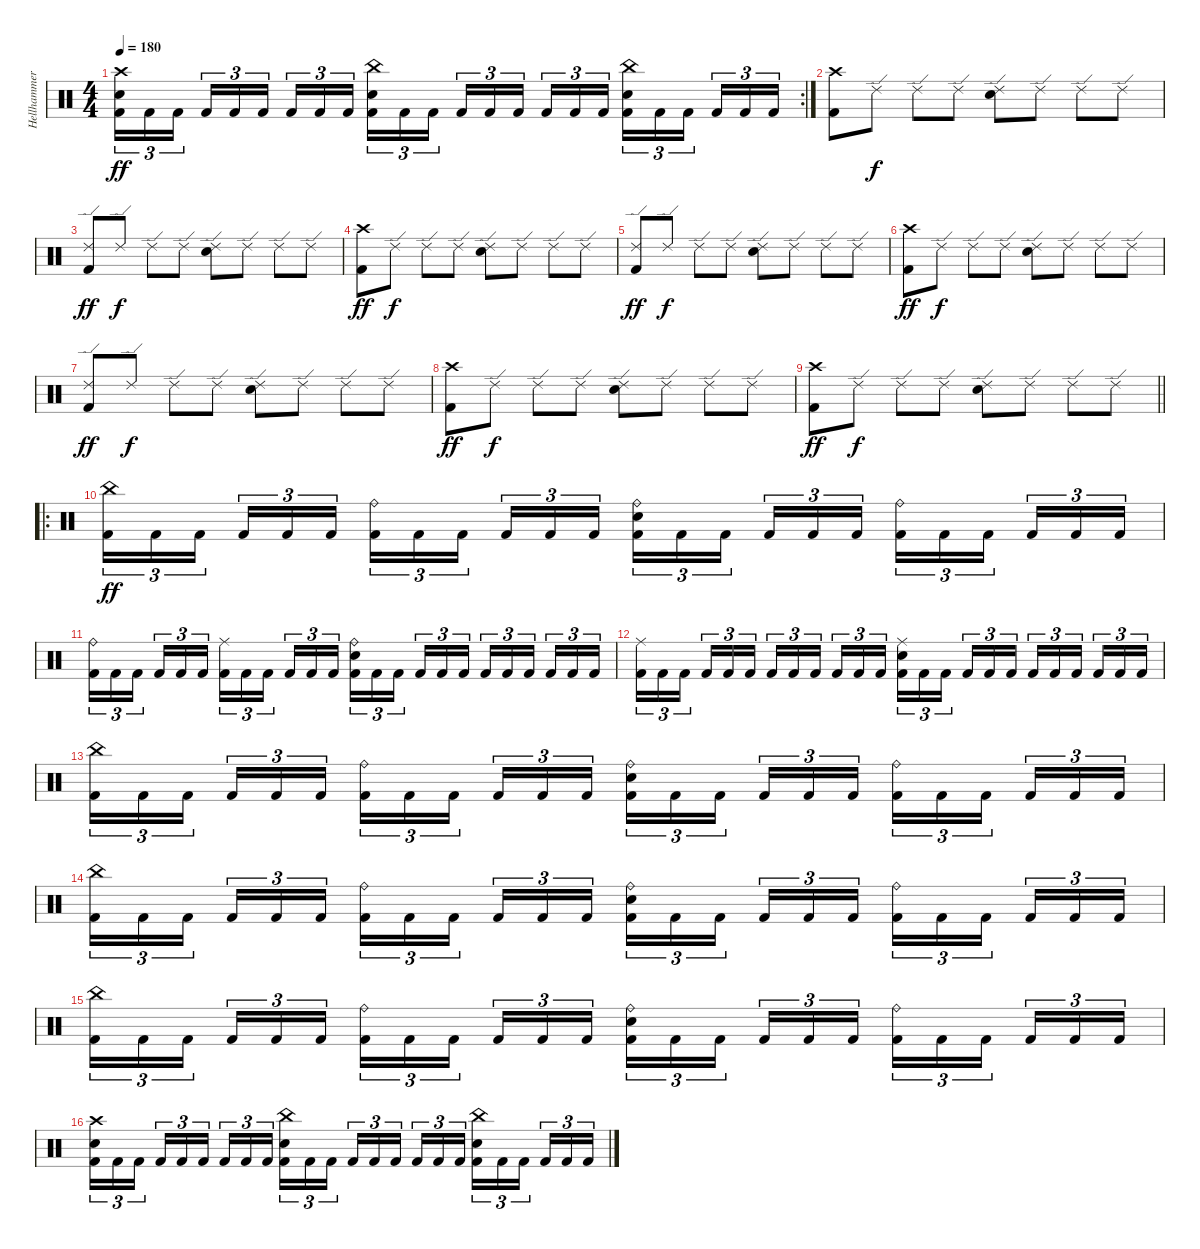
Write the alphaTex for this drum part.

\track ("Hellhammer" "Hellhammer") {instrument percussion}
\staff {score}
\articulation defaults
\rc 2
\ts (4 4)
\tempo 180
\clef neutral
\ks c
("Crash high (hit)" "Electric Snare (hit)" "Kick (hit) 2").16{tu (3 2) dy ff} "Kick (hit) 2".16{tu (3 2)} "Kick (hit) 2".16{tu (3 2) beam splitsecondary} "Kick (hit) 2".16{tu (3 2)} "Kick (hit) 2".16{tu (3 2)} "Kick (hit) 2".16{tu (3 2)} "Kick (hit) 2".16{tu (3 2)} "Kick (hit) 2".16{tu (3 2)} "Kick (hit) 2".16{tu (3 2) beam splitsecondary} ("China (hit)" "Electric Snare (hit)" "Kick (hit) 2").16{tu (3 2)} "Kick (hit) 2".16{tu (3 2)} "Kick (hit) 2".16{tu (3 2)} "Kick (hit) 2".16{tu (3 2)} "Kick (hit) 2".16{tu (3 2)} "Kick (hit) 2".16{tu (3 2) beam splitsecondary} "Kick (hit) 2".16{tu (3 2)} "Kick (hit) 2".16{tu (3 2)} "Kick (hit) 2".16{tu (3 2)} ("China (hit)" "Electric Snare (hit)" "Kick (hit) 2").16{tu (3 2)} "Kick (hit) 2".16{tu (3 2)} "Kick (hit) 2".16{tu (3 2) beam splitsecondary} "Kick (hit) 2".16{tu (3 2)} "Kick (hit) 2".16{tu (3 2)} "Kick (hit) 2".16{tu (3 2)} |
("Crash high (hit)" "Kick (hit) 2").8 "Ride (edge) 2".8{dy f} "Ride (edge) 2".8 "Ride (edge) 2".8 ("Ride (edge) 2" "Electric Snare (hit)").8 "Ride (edge) 2".8 "Ride (edge) 2".8 "Ride (edge) 2".8 |
("Ride (edge) 2" "Kick (hit) 2").8{dy ff} "Ride (edge) 2".8{dy f} "Ride (edge) 2".8 "Ride (edge) 2".8 ("Ride (edge) 2" "Electric Snare (hit)").8 "Ride (edge) 2".8 "Ride (edge) 2".8 "Ride (edge) 2".8 |
("Crash high (hit)" "Kick (hit) 2").8{dy ff} "Ride (edge) 2".8{dy f} "Ride (edge) 2".8 "Ride (edge) 2".8 ("Ride (edge) 2" "Electric Snare (hit)").8 "Ride (edge) 2".8 "Ride (edge) 2".8 "Ride (edge) 2".8 |
("Ride (edge) 2" "Kick (hit) 2").8{dy ff} "Ride (edge) 2".8{dy f} "Ride (edge) 2".8 "Ride (edge) 2".8 ("Ride (edge) 2" "Electric Snare (hit)").8 "Ride (edge) 2".8 "Ride (edge) 2".8 "Ride (edge) 2".8 |
("Crash high (hit)" "Kick (hit) 2").8{dy ff} "Ride (edge) 2".8{dy f} "Ride (edge) 2".8 "Ride (edge) 2".8 ("Ride (edge) 2" "Electric Snare (hit)").8 "Ride (edge) 2".8 "Ride (edge) 2".8 "Ride (edge) 2".8 |
("Ride (edge) 2" "Kick (hit) 2").8{dy ff} "Ride (edge) 2".8{dy f} "Ride (edge) 2".8 "Ride (edge) 2".8 ("Ride (edge) 2" "Electric Snare (hit)").8 "Ride (edge) 2".8 "Ride (edge) 2".8 "Ride (edge) 2".8 |
("Crash high (hit)" "Kick (hit) 2").8{dy ff} "Ride (edge) 2".8{dy f} "Ride (edge) 2".8 "Ride (edge) 2".8 ("Ride (edge) 2" "Electric Snare (hit)").8 "Ride (edge) 2".8 "Ride (edge) 2".8 "Ride (edge) 2".8 |
\barLineRight lightlight
("Crash high (hit)" "Kick (hit) 2").8{dy ff} "Ride (edge) 2".8{dy f} "Ride (edge) 2".8 "Ride (edge) 2".8 ("Ride (edge) 2" "Electric Snare (hit)").8 "Ride (edge) 2".8 "Ride (edge) 2".8 "Ride (edge) 2".8 |
\ro
("China (hit)" "Kick (hit) 2").16{tu (3 2) dy ff} "Kick (hit) 2".16{tu (3 2)} "Kick (hit) 2".16{tu (3 2) beam splitsecondary} "Kick (hit) 2".16{tu (3 2)} "Kick (hit) 2".16{tu (3 2)} "Kick (hit) 2".16{tu (3 2)} ("Ride (bell)" "Kick (hit) 2").16{tu (3 2)} "Kick (hit) 2".16{tu (3 2)} "Kick (hit) 2".16{tu (3 2) beam splitsecondary} "Kick (hit) 2".16{tu (3 2)} "Kick (hit) 2".16{tu (3 2)} "Kick (hit) 2".16{tu (3 2)} ("Ride (bell)" "Electric Snare (hit)" "Kick (hit) 2").16{tu (3 2)} "Kick (hit) 2".16{tu (3 2)} "Kick (hit) 2".16{tu (3 2) beam splitsecondary} "Kick (hit) 2".16{tu (3 2)} "Kick (hit) 2".16{tu (3 2)} "Kick (hit) 2".16{tu (3 2)} ("Ride (bell)" "Kick (hit) 2").16{tu (3 2)} "Kick (hit) 2".16{tu (3 2)} "Kick (hit) 2".16{tu (3 2) beam splitsecondary} "Kick (hit) 2".16{tu (3 2)} "Kick (hit) 2".16{tu (3 2)} "Kick (hit) 2".16{tu (3 2)} |
("Ride (bell)" "Kick (hit) 2").16{tu (3 2)} "Kick (hit) 2".16{tu (3 2)} "Kick (hit) 2".16{tu (3 2) beam splitsecondary} "Kick (hit) 2".16{tu (3 2)} "Kick (hit) 2".16{tu (3 2)} "Kick (hit) 2".16{tu (3 2)} ("Ride (middle)" "Kick (hit) 2").16{tu (3 2)} "Kick (hit) 2".16{tu (3 2)} "Kick (hit) 2".16{tu (3 2) beam splitsecondary} "Kick (hit) 2".16{tu (3 2)} "Kick (hit) 2".16{tu (3 2)} "Kick (hit) 2".16{tu (3 2)} ("Ride (bell)" "Electric Snare (hit)" "Kick (hit) 2").16{tu (3 2)} "Kick (hit) 2".16{tu (3 2)} "Kick (hit) 2".16{tu (3 2) beam splitsecondary} "Kick (hit) 2".16{tu (3 2)} "Kick (hit) 2".16{tu (3 2)} "Kick (hit) 2".16{tu (3 2)} "Kick (hit) 2".16{tu (3 2)} "Kick (hit) 2".16{tu (3 2)} "Kick (hit) 2".16{tu (3 2) beam splitsecondary} "Kick (hit) 2".16{tu (3 2)} "Kick (hit) 2".16{tu (3 2)} "Kick (hit) 2".16{tu (3 2)} |
("Ride (middle)" "Kick (hit) 2").16{tu (3 2)} "Kick (hit) 2".16{tu (3 2)} "Kick (hit) 2".16{tu (3 2) beam splitsecondary} "Kick (hit) 2".16{tu (3 2)} "Kick (hit) 2".16{tu (3 2)} "Kick (hit) 2".16{tu (3 2)} "Kick (hit) 2".16{tu (3 2)} "Kick (hit) 2".16{tu (3 2)} "Kick (hit) 2".16{tu (3 2) beam splitsecondary} "Kick (hit) 2".16{tu (3 2)} "Kick (hit) 2".16{tu (3 2)} "Kick (hit) 2".16{tu (3 2)} ("Ride (middle)" "Electric Snare (hit)" "Kick (hit) 2").16{tu (3 2)} "Kick (hit) 2".16{tu (3 2)} "Kick (hit) 2".16{tu (3 2) beam splitsecondary} "Kick (hit) 2".16{tu (3 2)} "Kick (hit) 2".16{tu (3 2)} "Kick (hit) 2".16{tu (3 2)} "Kick (hit) 2".16{tu (3 2)} "Kick (hit) 2".16{tu (3 2)} "Kick (hit) 2".16{tu (3 2) beam splitsecondary} "Kick (hit) 2".16{tu (3 2)} "Kick (hit) 2".16{tu (3 2)} "Kick (hit) 2".16{tu (3 2)} |
("China (hit)" "Kick (hit) 2").16{tu (3 2)} "Kick (hit) 2".16{tu (3 2)} "Kick (hit) 2".16{tu (3 2) beam splitsecondary} "Kick (hit) 2".16{tu (3 2)} "Kick (hit) 2".16{tu (3 2)} "Kick (hit) 2".16{tu (3 2)} ("Ride (bell)" "Kick (hit) 2").16{tu (3 2)} "Kick (hit) 2".16{tu (3 2)} "Kick (hit) 2".16{tu (3 2) beam splitsecondary} "Kick (hit) 2".16{tu (3 2)} "Kick (hit) 2".16{tu (3 2)} "Kick (hit) 2".16{tu (3 2)} ("Ride (bell)" "Electric Snare (hit)" "Kick (hit) 2").16{tu (3 2)} "Kick (hit) 2".16{tu (3 2)} "Kick (hit) 2".16{tu (3 2) beam splitsecondary} "Kick (hit) 2".16{tu (3 2)} "Kick (hit) 2".16{tu (3 2)} "Kick (hit) 2".16{tu (3 2)} ("Ride (bell)" "Kick (hit) 2").16{tu (3 2)} "Kick (hit) 2".16{tu (3 2)} "Kick (hit) 2".16{tu (3 2) beam splitsecondary} "Kick (hit) 2".16{tu (3 2)} "Kick (hit) 2".16{tu (3 2)} "Kick (hit) 2".16{tu (3 2)} |
("China (hit)" "Kick (hit) 2").16{tu (3 2)} "Kick (hit) 2".16{tu (3 2)} "Kick (hit) 2".16{tu (3 2) beam splitsecondary} "Kick (hit) 2".16{tu (3 2)} "Kick (hit) 2".16{tu (3 2)} "Kick (hit) 2".16{tu (3 2)} ("Ride (bell)" "Kick (hit) 2").16{tu (3 2)} "Kick (hit) 2".16{tu (3 2)} "Kick (hit) 2".16{tu (3 2) beam splitsecondary} "Kick (hit) 2".16{tu (3 2)} "Kick (hit) 2".16{tu (3 2)} "Kick (hit) 2".16{tu (3 2)} ("Ride (bell)" "Electric Snare (hit)" "Kick (hit) 2").16{tu (3 2)} "Kick (hit) 2".16{tu (3 2)} "Kick (hit) 2".16{tu (3 2) beam splitsecondary} "Kick (hit) 2".16{tu (3 2)} "Kick (hit) 2".16{tu (3 2)} "Kick (hit) 2".16{tu (3 2)} ("Ride (bell)" "Kick (hit) 2").16{tu (3 2)} "Kick (hit) 2".16{tu (3 2)} "Kick (hit) 2".16{tu (3 2) beam splitsecondary} "Kick (hit) 2".16{tu (3 2)} "Kick (hit) 2".16{tu (3 2)} "Kick (hit) 2".16{tu (3 2)} |
("China (hit)" "Kick (hit) 2").16{tu (3 2)} "Kick (hit) 2".16{tu (3 2)} "Kick (hit) 2".16{tu (3 2) beam splitsecondary} "Kick (hit) 2".16{tu (3 2)} "Kick (hit) 2".16{tu (3 2)} "Kick (hit) 2".16{tu (3 2)} ("Ride (bell)" "Kick (hit) 2").16{tu (3 2)} "Kick (hit) 2".16{tu (3 2)} "Kick (hit) 2".16{tu (3 2) beam splitsecondary} "Kick (hit) 2".16{tu (3 2)} "Kick (hit) 2".16{tu (3 2)} "Kick (hit) 2".16{tu (3 2)} ("Ride (bell)" "Electric Snare (hit)" "Kick (hit) 2").16{tu (3 2)} "Kick (hit) 2".16{tu (3 2)} "Kick (hit) 2".16{tu (3 2) beam splitsecondary} "Kick (hit) 2".16{tu (3 2)} "Kick (hit) 2".16{tu (3 2)} "Kick (hit) 2".16{tu (3 2)} ("Ride (bell)" "Kick (hit) 2").16{tu (3 2)} "Kick (hit) 2".16{tu (3 2)} "Kick (hit) 2".16{tu (3 2) beam splitsecondary} "Kick (hit) 2".16{tu (3 2)} "Kick (hit) 2".16{tu (3 2)} "Kick (hit) 2".16{tu (3 2)} |
("Crash high (hit)" "Electric Snare (hit)" "Kick (hit) 2").16{tu (3 2)} "Kick (hit) 2".16{tu (3 2)} "Kick (hit) 2".16{tu (3 2) beam splitsecondary} "Kick (hit) 2".16{tu (3 2)} "Kick (hit) 2".16{tu (3 2)} "Kick (hit) 2".16{tu (3 2)} "Kick (hit) 2".16{tu (3 2)} "Kick (hit) 2".16{tu (3 2)} "Kick (hit) 2".16{tu (3 2) beam splitsecondary} ("China (hit)" "Electric Snare (hit)" "Kick (hit) 2").16{tu (3 2)} "Kick (hit) 2".16{tu (3 2)} "Kick (hit) 2".16{tu (3 2)} "Kick (hit) 2".16{tu (3 2)} "Kick (hit) 2".16{tu (3 2)} "Kick (hit) 2".16{tu (3 2) beam splitsecondary} "Kick (hit) 2".16{tu (3 2)} "Kick (hit) 2".16{tu (3 2)} "Kick (hit) 2".16{tu (3 2)} ("China (hit)" "Electric Snare (hit)" "Kick (hit) 2").16{tu (3 2)} "Kick (hit) 2".16{tu (3 2)} "Kick (hit) 2".16{tu (3 2) beam splitsecondary} "Kick (hit) 2".16{tu (3 2)} "Kick (hit) 2".16{tu (3 2)} "Kick (hit) 2".16{tu (3 2)}
